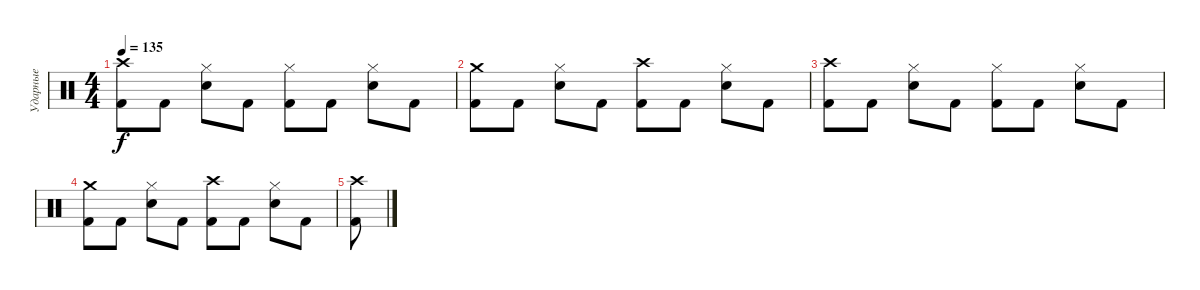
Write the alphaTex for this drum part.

\track ("Ударные" "Ударные") {solo instrument percussion}
\staff {score}
\articulation defaults
\ts (4 4)
\tempo 135
\clef neutral
\ks c
("Kick (hit) 2" "Crash high (hit)").8{dy f} "Kick (hit) 2".8 ("Snare (hit) 2" "Hi-Hat (closed)").8 "Kick (hit) 2".8 ("Kick (hit) 2" "Hi-Hat (closed)").8 "Kick (hit) 2".8 ("Snare (hit) 2" "Hi-Hat (closed)").8 "Kick (hit) 2".8 |
("Kick (hit) 2" "Crash medium (hit)").8 "Kick (hit) 2".8 ("Snare (hit) 2" "Hi-Hat (closed)").8 "Kick (hit) 2".8 ("Kick (hit) 2" "Crash high (hit)").8 "Kick (hit) 2".8 ("Snare (hit) 2" "Hi-Hat (closed)").8 "Kick (hit) 2".8 |
("Kick (hit) 2" "Crash high (hit)").8 "Kick (hit) 2".8 ("Snare (hit) 2" "Hi-Hat (closed)").8 "Kick (hit) 2".8 ("Kick (hit) 2" "Hi-Hat (closed)").8 "Kick (hit) 2".8 ("Snare (hit) 2" "Hi-Hat (closed)").8 "Kick (hit) 2".8 |
("Kick (hit) 2" "Crash medium (hit)").8 "Kick (hit) 2".8 ("Snare (hit) 2" "Hi-Hat (closed)").8 "Kick (hit) 2".8 ("Kick (hit) 2" "Crash high (hit)").8 "Kick (hit) 2".8 ("Snare (hit) 2" "Hi-Hat (closed)").8 "Kick (hit) 2".8 |
("Kick (hit) 2" "Crash high (hit)").8
